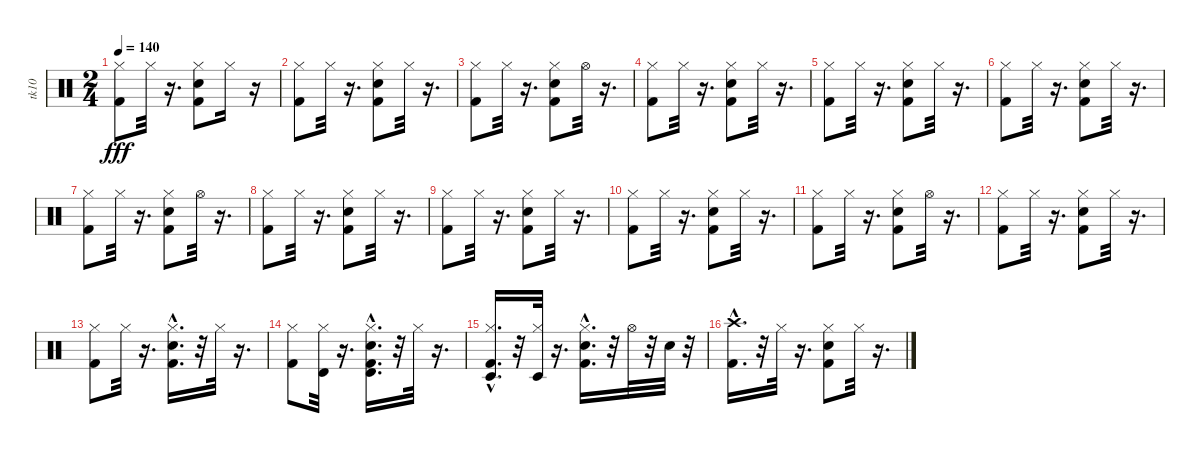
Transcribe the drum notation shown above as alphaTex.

\track ("tk10" "tk10") {instrument percussion}
\staff {score}
\articulation defaults
\ts (2 4)
\tempo 140
\clef neutral
\ks c
("Kick (hit) 2" "Hi-Hat (closed)").8{dy fff} "Hi-Hat (closed)".32 r.16{d} ("Snare (hit) 2" "Kick (hit) 2" "Hi-Hat (closed)").8 "Hi-Hat (closed)".16 r.16 |
("Kick (hit) 2" "Hi-Hat (closed)").8 "Hi-Hat (closed)".32 r.16{d} ("Snare (hit) 2" "Kick (hit) 2" "Hi-Hat (closed)").8 "Hi-Hat (closed)".32 r.16{d} |
("Kick (hit) 2" "Hi-Hat (closed)").8 "Hi-Hat (closed)".32 r.16{d} ("Kick (hit) 2" "Snare (hit) 2" "Hi-Hat (closed)").8 "Hi-Hat (open)".32 r.16{d} |
("Kick (hit) 2" "Hi-Hat (closed)").8 "Hi-Hat (closed)".32 r.16{d} ("Snare (hit) 2" "Kick (hit) 2" "Hi-Hat (closed)").8 "Hi-Hat (closed)".32 r.16{d} |
("Kick (hit) 2" "Hi-Hat (closed)").8 "Hi-Hat (closed)".32 r.16{d} ("Snare (hit) 2" "Kick (hit) 2" "Hi-Hat (closed)").8 "Hi-Hat (closed)".32 r.16{d} |
("Kick (hit) 2" "Hi-Hat (closed)").8 "Hi-Hat (closed)".32 r.16{d} ("Kick (hit) 2" "Hi-Hat (closed)" "Snare (hit) 2").8 "Hi-Hat (closed)".32 r.16{d} |
("Kick (hit) 2" "Hi-Hat (closed)").8 "Hi-Hat (closed)".32 r.16{d} ("Kick (hit) 2" "Snare (hit) 2" "Hi-Hat (closed)").8 "Hi-Hat (open)".32 r.16{d} |
("Kick (hit) 2" "Hi-Hat (closed)").8 "Hi-Hat (closed)".32 r.16{d} ("Snare (hit) 2" "Kick (hit) 2" "Hi-Hat (closed)").8 "Hi-Hat (closed)".32 r.16{d} |
("Kick (hit) 2" "Hi-Hat (closed)").8 "Hi-Hat (closed)".32 r.16{d} ("Snare (hit) 2" "Kick (hit) 2" "Hi-Hat (closed)").8 "Hi-Hat (closed)".32 r.16{d} |
("Kick (hit) 2" "Hi-Hat (closed)").8 "Hi-Hat (closed)".32 r.16{d} ("Snare (hit) 2" "Kick (hit) 2" "Hi-Hat (closed)").8 "Hi-Hat (closed)".32 r.16{d} |
("Kick (hit) 2" "Hi-Hat (closed)").8 "Hi-Hat (closed)".32 r.16{d} ("Snare (hit) 2" "Kick (hit) 2" "Hi-Hat (closed)").8 "Hi-Hat (open)".32 r.16{d} |
("Kick (hit) 2" "Hi-Hat (closed)").8 "Hi-Hat (closed)".32 r.16{d} ("Snare (hit) 2" "Kick (hit) 2" "Hi-Hat (closed)").8 "Hi-Hat (closed)".32 r.16{d} |
("Kick (hit) 2" "Hi-Hat (closed)").8 "Hi-Hat (closed)".32 r.16{d} ("Snare (hit) 2"{hac} "Kick (hit) 2"{hac} "Hi-Hat (closed)").16{d} r.32 "Hi-Hat (closed)".32 r.16{d} |
("Kick (hit) 2" "Hi-Hat (closed)").8 ("Timbale high (hit)" "Hi-Hat (closed)").32 r.16{d} ("Timbale high (hit)" "Snare (hit) 2"{hac} "Kick (hit) 2"{hac} "Hi-Hat (closed)").16{d} r.32 "Hi-Hat (closed)".32 r.16{d} |
("Hi-Hat (closed)" "Kick (hit) 2"{hac} "Timbale low (hit)").16{d} r.32 ("Timbale low (hit)" "Hi-Hat (closed)").32 r.16{d} ("Snare (hit) 2"{hac} "Kick (hit) 2"{hac} "Hi-Hat (closed)").16{d} r.32 "Hi-Hat (open)".32 r.32 "Snare (hit) 2".32 r.32 |
("Kick (hit) 2"{hac} "Crash high (hit)").16{d} r.32 "Hi-Hat (closed)".32 r.16{d} ("Snare (hit) 2" "Hi-Hat (closed)" "Kick (hit) 2").8 "Hi-Hat (closed)".32 r.16{d}
